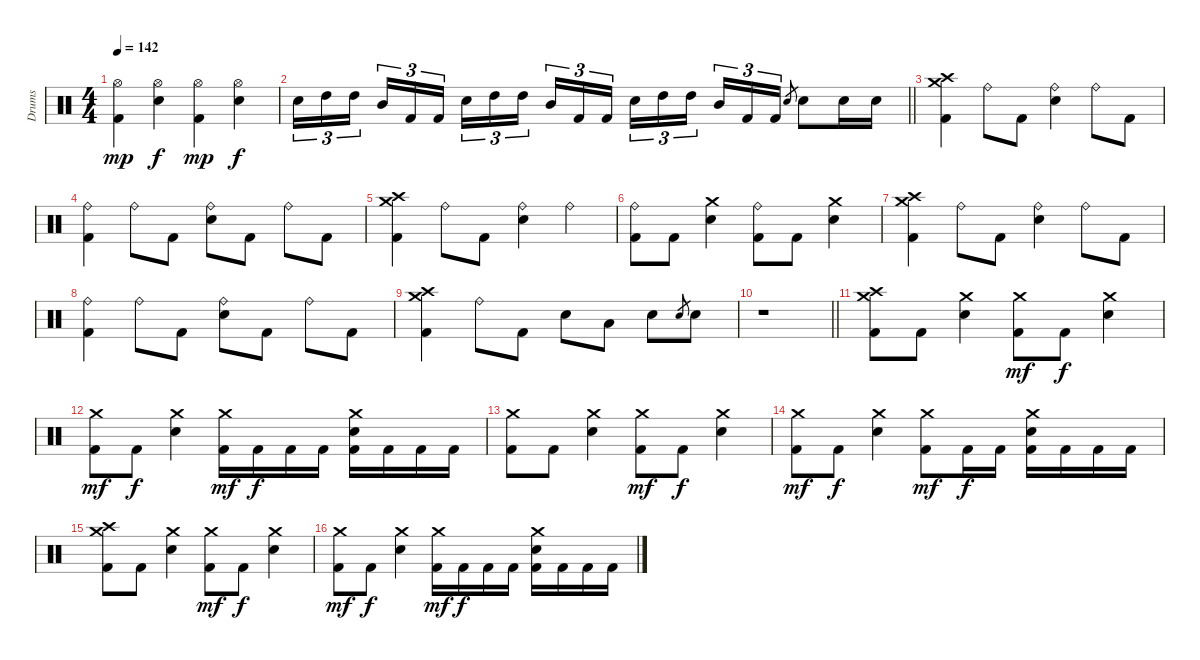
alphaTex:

\track ("Drums" "Drums") {instrument percussion}
\staff {score}
\articulation defaults
\ts (4 4)
\tempo 142
\clef neutral
\ks c
("Hi-Hat (open)" "Kick (hit) 2").4{dy mp} ("Hi-Hat (open)" "Electric Snare (hit)").4{dy f} ("Hi-Hat (open)" "Kick (hit) 2").4{dy mp} ("Hi-Hat (open)" "Electric Snare (hit)").4{dy f} |
\barLineRight lightlight "Electric Snare (hit)".16{tu (3 2)} "High Tom (hit)".16{tu (3 2)} "High Tom (hit)".16{tu (3 2)} "Mid Tom (hit)".16{tu (3 2)} "Kick (hit) 2".16{tu (3 2)} "Kick (hit) 2".16{tu (3 2)} "Electric Snare (hit)".16{tu (3 2)} "High Tom (hit)".16{tu (3 2)} "High Tom (hit)".16{tu (3 2)} "Mid Tom (hit)".16{tu (3 2)} "Kick (hit) 2".16{tu (3 2)} "Kick (hit) 2".16{tu (3 2)} "Electric Snare (hit)".16{tu (3 2)} "High Tom (hit)".16{tu (3 2)} "High Tom (hit)".16{tu (3 2)} "Mid Tom (hit)".16{tu (3 2)} "Kick (hit) 2".16{tu (3 2)} "Kick (hit) 2".16{tu (3 2)} "Electric Snare (hit)".8{gr} "Electric Snare (hit)".8 "Electric Snare (hit)".16 "Electric Snare (hit)".16
|
("Crash high (hit)" "Crash medium (hit)" "Kick (hit) 2").4 "Ride (bell)".8 "Kick (hit) 2".8 ("Ride (bell)" "Electric Snare (hit)").4 "Ride (bell)".8 "Kick (hit) 2".8 |
("Ride (bell)" "Kick (hit) 2").4 "Ride (bell)".8 "Kick (hit) 2".8 ("Ride (bell)" "Electric Snare (hit)").8 "Kick (hit) 2".8 "Ride (bell)".8 "Kick (hit) 2".8 |
("Crash high (hit)" "Crash medium (hit)" "Kick (hit) 2").4 "Ride (bell)".8 "Kick (hit) 2".8 ("Ride (bell)" "Electric Snare (hit)").4 "Ride (bell)".4 |
("Ride (bell)" "Kick (hit) 2").8 "Kick (hit) 2".8 ("Crash medium (hit)" "Electric Snare (hit)").4 ("Ride (bell)" "Kick (hit) 2").8 "Kick (hit) 2".8 ("Crash medium (hit)" "Electric Snare (hit)").4 |
("Crash high (hit)" "Crash medium (hit)" "Kick (hit) 2").4 "Ride (bell)".8 "Kick (hit) 2".8 ("Ride (bell)" "Electric Snare (hit)").4 "Ride (bell)".8 "Kick (hit) 2".8 |
("Ride (bell)" "Kick (hit) 2").4 "Ride (bell)".8 "Kick (hit) 2".8 ("Ride (bell)" "Electric Snare (hit)").8 "Kick (hit) 2".8 "Ride (bell)".8 "Kick (hit) 2".8 |
("Crash high (hit)" "Crash medium (hit)" "Kick (hit) 2").4 "Ride (bell)".8 "Kick (hit) 2".8 "Electric Snare (hit)".8 "Low Tom (hit)".8 "Electric Snare (hit)".8 "Electric Snare (hit)".8{gr} "Electric Snare (hit)".8 |
\barLineRight lightlight
r.1 |
("Crash medium (hit)" "Crash high (hit)" "Kick (hit) 2").8 "Kick (hit) 2".8 ("Crash medium (hit)" "Electric Snare (hit)").4 ("Crash medium (hit)" "Kick (hit) 2").8{dy mf} "Kick (hit) 2".8{dy f} ("Crash medium (hit)" "Electric Snare (hit)").4 |
("Crash medium (hit)" "Kick (hit) 2").8{dy mf} "Kick (hit) 2".8{dy f} ("Crash medium (hit)" "Electric Snare (hit)").4 ("Crash medium (hit)" "Kick (hit) 2").16{dy mf} "Kick (hit) 2".16{dy f} "Kick (hit) 2".16 "Kick (hit) 2".16 ("Crash medium (hit)" "Electric Snare (hit)" "Kick (hit) 2").16 "Kick (hit) 2".16 "Kick (hit) 2".16 "Kick (hit) 2".16 |
("Crash medium (hit)" "Kick (hit) 2").8 "Kick (hit) 2".8 ("Crash medium (hit)" "Electric Snare (hit)").4 ("Crash medium (hit)" "Kick (hit) 2").8{dy mf} "Kick (hit) 2".8{dy f} ("Crash medium (hit)" "Electric Snare (hit)").4 |
("Crash medium (hit)" "Kick (hit) 2").8{dy mf} "Kick (hit) 2".8{dy f} ("Crash medium (hit)" "Electric Snare (hit)").4 ("Crash medium (hit)" "Kick (hit) 2").8{dy mf} "Kick (hit) 2".16{dy f} "Kick (hit) 2".16 ("Crash medium (hit)" "Electric Snare (hit)" "Kick (hit) 2").16 "Kick (hit) 2".16 "Kick (hit) 2".16 "Kick (hit) 2".16 |
("Crash medium (hit)" "Crash high (hit)" "Kick (hit) 2").8 "Kick (hit) 2".8 ("Crash medium (hit)" "Electric Snare (hit)").4 ("Crash medium (hit)" "Kick (hit) 2").8{dy mf} "Kick (hit) 2".8{dy f} ("Crash medium (hit)" "Electric Snare (hit)").4 |
("Crash medium (hit)" "Kick (hit) 2").8{dy mf} "Kick (hit) 2".8{dy f} ("Crash medium (hit)" "Electric Snare (hit)").4 ("Crash medium (hit)" "Kick (hit) 2").16{dy mf} "Kick (hit) 2".16{dy f} "Kick (hit) 2".16 "Kick (hit) 2".16 ("Crash medium (hit)" "Electric Snare (hit)" "Kick (hit) 2").16 "Kick (hit) 2".16 "Kick (hit) 2".16 "Kick (hit) 2".16
